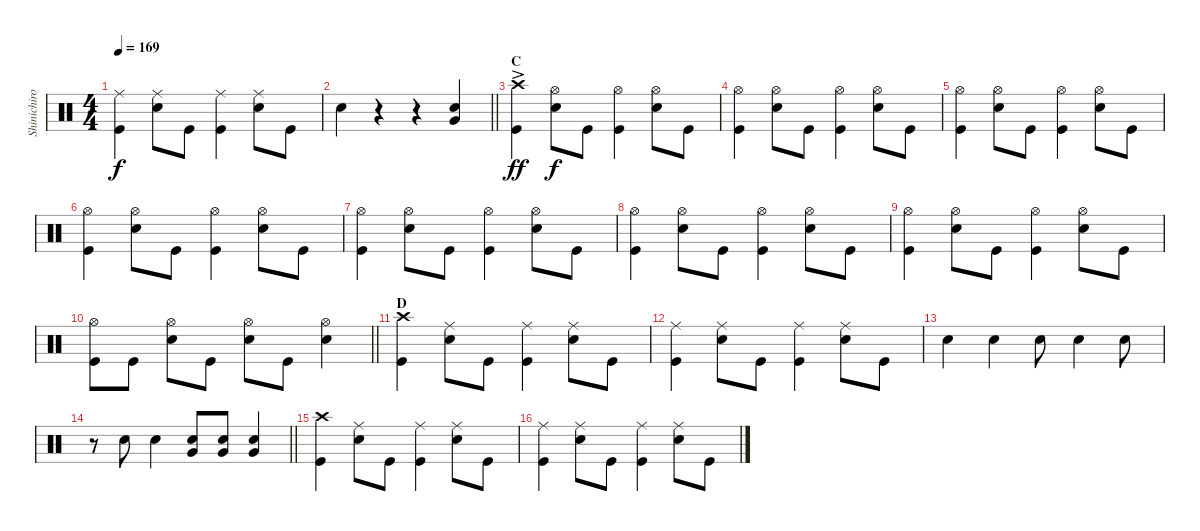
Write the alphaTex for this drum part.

\track ("Shinichiro Sato drums" "Shinichiro") {instrument percussion}
\staff {score}
\articulation defaults
\ts (4 4)
\tempo 169
\clef neutral
\ks c
("Ride (middle)" "Kick (hit)").4{dy f} ("Ride (middle)" "Snare (hit) 2").8 "Kick (hit)".8 ("Ride (middle)" "Kick (hit)").4 ("Ride (middle)" "Snare (hit) 2").8 "Kick (hit)".8 |
\barLineRight lightlight "Snare (hit) 2".4
r.4 r.4 ("Snare (hit) 2" "Very Low Tom (hit)").4 |
\section ("" "C")
("Crash high (hit)"{ac} "Kick (hit)").4{dy ff} ("Hi-Hat (open)" "Snare (hit) 2").8{dy f} "Kick (hit)".8 ("Hi-Hat (open)" "Kick (hit)").4 ("Hi-Hat (open)" "Snare (hit) 2").8 "Kick (hit)".8 |
("Hi-Hat (open)" "Kick (hit)").4 ("Hi-Hat (open)" "Snare (hit) 2").8 "Kick (hit)".8 ("Hi-Hat (open)" "Kick (hit)").4 ("Hi-Hat (open)" "Snare (hit) 2").8 "Kick (hit)".8 |
("Hi-Hat (open)" "Kick (hit)").4 ("Hi-Hat (open)" "Snare (hit) 2").8 "Kick (hit)".8 ("Hi-Hat (open)" "Kick (hit)").4 ("Hi-Hat (open)" "Snare (hit) 2").8 "Kick (hit)".8 |
("Hi-Hat (open)" "Kick (hit)").4 ("Hi-Hat (open)" "Snare (hit) 2").8 "Kick (hit)".8 ("Hi-Hat (open)" "Kick (hit)").4 ("Hi-Hat (open)" "Snare (hit) 2").8 "Kick (hit)".8 |
("Hi-Hat (open)" "Kick (hit)").4 ("Hi-Hat (open)" "Snare (hit) 2").8 "Kick (hit)".8 ("Hi-Hat (open)" "Kick (hit)").4 ("Hi-Hat (open)" "Snare (hit) 2").8 "Kick (hit)".8 |
("Hi-Hat (open)" "Kick (hit)").4 ("Hi-Hat (open)" "Snare (hit) 2").8 "Kick (hit)".8 ("Hi-Hat (open)" "Kick (hit)").4 ("Hi-Hat (open)" "Snare (hit) 2").8 "Kick (hit)".8 |
("Hi-Hat (open)" "Kick (hit)").4 ("Hi-Hat (open)" "Snare (hit) 2").8 "Kick (hit)".8 ("Hi-Hat (open)" "Kick (hit)").4 ("Hi-Hat (open)" "Snare (hit) 2").8 "Kick (hit)".8 |
\barLineRight lightlight
("Hi-Hat (open)" "Kick (hit)").8 "Kick (hit)".8 ("Hi-Hat (open)" "Snare (hit) 2").8 "Kick (hit)".8 ("Hi-Hat (open)" "Snare (hit) 2").8 "Kick (hit)".8 ("Hi-Hat (open)" "Snare (hit) 2").4 |
\section ("" "D")
("Crash high (hit)" "Kick (hit)").4 ("Ride (middle)" "Snare (hit) 2").8 "Kick (hit)".8 ("Ride (middle)" "Kick (hit)").4 ("Ride (middle)" "Snare (hit) 2").8 "Kick (hit)".8 |
("Ride (middle)" "Kick (hit)").4 ("Ride (middle)" "Snare (hit) 2").8 "Kick (hit)".8 ("Ride (middle)" "Kick (hit)").4 ("Ride (middle)" "Snare (hit) 2").8 "Kick (hit)".8 |
"Snare (hit) 2".4 "Snare (hit) 2".4 "Snare (hit) 2".8 "Snare (hit) 2".4 "Snare (hit) 2".8 |
\barLineRight lightlight
r.8 "Snare (hit) 2".8 "Snare (hit) 2".4 ("Snare (hit) 2" "Very Low Tom (hit)").8 ("Snare (hit) 2" "Very Low Tom (hit)").8 ("Snare (hit) 2" "Very Low Tom (hit)").4 |
("Crash high (hit)" "Kick (hit)").4 ("Ride (middle)" "Snare (hit) 2").8 "Kick (hit)".8 ("Ride (middle)" "Kick (hit)").4 ("Ride (middle)" "Snare (hit) 2").8 "Kick (hit)".8 |
("Ride (middle)" "Kick (hit)").4 ("Ride (middle)" "Snare (hit) 2").8 "Kick (hit)".8 ("Ride (middle)" "Kick (hit)").4 ("Ride (middle)" "Snare (hit) 2").8 "Kick (hit)".8
